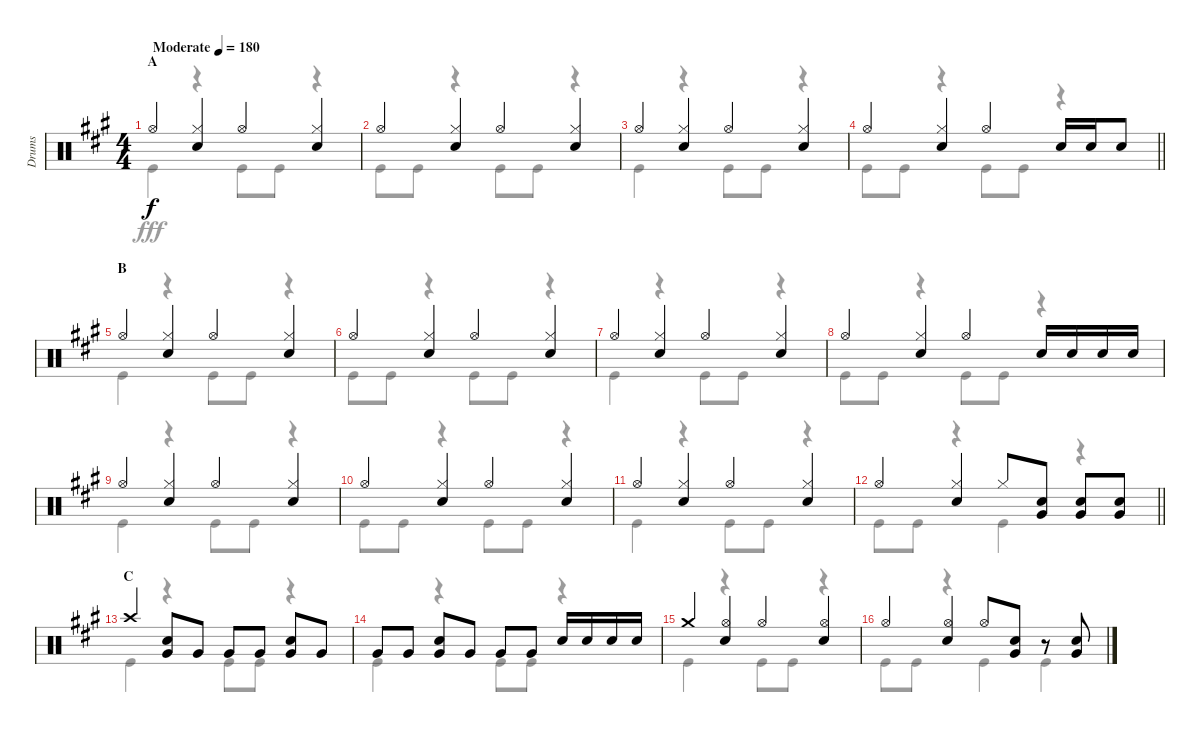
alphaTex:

\track ("Drums" "Drums") {instrument percussion}
\staff {score}
\articulation defaults
\voice
\ts (4 4)
\section ("" "A")
\tempo (180 "Moderate")
\clef neutral
\ks a "Hi-Hat (open)".4{dy f}
("Hi-Hat (closed)" "Snare (hit) 2").4 "Hi-Hat (open)".4 ("Hi-Hat (closed)" "Snare (hit) 2").4 |
"Hi-Hat (open)".4 ("Hi-Hat (closed)" "Snare (hit) 2").4 "Hi-Hat (open)".4 ("Hi-Hat (closed)" "Snare (hit) 2").4 |
"Hi-Hat (open)".4 ("Hi-Hat (closed)" "Snare (hit) 2").4 "Hi-Hat (open)".4 ("Hi-Hat (closed)" "Snare (hit) 2").4 |
\barLineRight lightlight "Hi-Hat (open)".4
("Hi-Hat (closed)" "Snare (hit) 2").4 "Hi-Hat (open)".4 "Snare (hit) 2".16 "Snare (hit) 2".16 "Snare (hit) 2".8 |
\section ("" "B")
"Hi-Hat (open)".4 ("Hi-Hat (closed)" "Snare (hit) 2").4 "Hi-Hat (open)".4 ("Hi-Hat (closed)" "Snare (hit) 2").4 |
"Hi-Hat (open)".4 ("Hi-Hat (closed)" "Snare (hit) 2").4 "Hi-Hat (open)".4 ("Hi-Hat (closed)" "Snare (hit) 2").4 |
"Hi-Hat (open)".4 ("Hi-Hat (closed)" "Snare (hit) 2").4 "Hi-Hat (open)".4 ("Hi-Hat (closed)" "Snare (hit) 2").4 |
"Hi-Hat (open)".4 ("Hi-Hat (closed)" "Snare (hit) 2").4 "Hi-Hat (open)".4 "Snare (hit) 2".16 "Snare (hit) 2".16 "Snare (hit) 2".16 "Snare (hit) 2".16 |
"Hi-Hat (open)".4 ("Hi-Hat (closed)" "Snare (hit) 2").4 "Hi-Hat (open)".4 ("Hi-Hat (closed)" "Snare (hit) 2").4 |
"Hi-Hat (open)".4 ("Hi-Hat (closed)" "Snare (hit) 2").4 "Hi-Hat (open)".4 ("Hi-Hat (closed)" "Snare (hit) 2").4 |
"Hi-Hat (open)".4 ("Hi-Hat (closed)" "Snare (hit) 2").4 "Hi-Hat (open)".4 ("Hi-Hat (closed)" "Snare (hit) 2").4 |
\barLineRight lightlight "Hi-Hat (open)".4
("Hi-Hat (closed)" "Snare (hit) 2").4 "Hi-Hat (closed)".8 ("Snare (hit) 2" "Very Low Tom (hit)").8 ("Snare (hit) 2" "Very Low Tom (hit)").8 ("Snare (hit) 2" "Very Low Tom (hit)").8 |
\section ("" "C")
"Crash high (hit)".4 ("Snare (hit) 2" "Very Low Tom (hit)").8 "Very Low Tom (hit)".8 "Very Low Tom (hit)".8 "Very Low Tom (hit)".8 ("Snare (hit) 2" "Very Low Tom (hit)").8 "Very Low Tom (hit)".8 |
"Very Low Tom (hit)".8 "Very Low Tom (hit)".8 ("Snare (hit) 2" "Very Low Tom (hit)").8 "Very Low Tom (hit)".8 "Very Low Tom (hit)".8 "Very Low Tom (hit)".8 "Snare (hit) 2".16 "Snare (hit) 2".16 "Snare (hit) 2".16 "Snare (hit) 2".16 |
"Crash medium (hit)".4 ("Hi-Hat (open)" "Snare (hit) 2").4 "Hi-Hat (open)".4 ("Hi-Hat (open)" "Snare (hit) 2").4 |
"Hi-Hat (open)".4 ("Hi-Hat (open)" "Snare (hit) 2").4 "Hi-Hat (open)".8 ("Snare (hit) 2" "Very Low Tom (hit)").8 r.8 ("Snare (hit) 2" "Very Low Tom (hit)").8
\voice
\clef neutral
\ottava regular
\simile none
\ks a "Kick (hit)".4{dy fff}
r.4 "Kick (hit)".8 "Kick (hit)".8 r.4 |
"Kick (hit)".8 "Kick (hit)".8 r.4 "Kick (hit)".8 "Kick (hit)".8 r.4 |
"Kick (hit)".4 r.4 "Kick (hit)".8 "Kick (hit)".8 r.4 |
\barLineRight lightlight "Kick (hit)".8 "Kick (hit)".8
r.4 "Kick (hit)".8 "Kick (hit)".8 r.4 |
"Kick (hit)".4 r.4 "Kick (hit)".8 "Kick (hit)".8 r.4 |
"Kick (hit)".8 "Kick (hit)".8 r.4 "Kick (hit)".8 "Kick (hit)".8 r.4 |
"Kick (hit)".4 r.4 "Kick (hit)".8 "Kick (hit)".8 r.4 |
"Kick (hit)".8 "Kick (hit)".8 r.4 "Kick (hit)".8 "Kick (hit)".8 r.4 |
"Kick (hit)".4 r.4 "Kick (hit)".8 "Kick (hit)".8 r.4 |
"Kick (hit)".8 "Kick (hit)".8 r.4 "Kick (hit)".8 "Kick (hit)".8 r.4 |
"Kick (hit)".4 r.4 "Kick (hit)".8 "Kick (hit)".8 r.4 |
\barLineRight lightlight "Kick (hit)".8 "Kick (hit)".8
r.4 "Kick (hit)".4 r.4 |
"Kick (hit)".4 r.4 "Kick (hit)".8 "Kick (hit)".8 r.4 |
"Kick (hit)".4 r.4 "Kick (hit)".8 "Kick (hit)".8 r.4 |
"Kick (hit)".4 r.4 "Kick (hit)".8 "Kick (hit)".8 r.4 |
"Kick (hit)".8 "Kick (hit)".8 r.4 "Kick (hit)".4 "Kick (hit)".4
